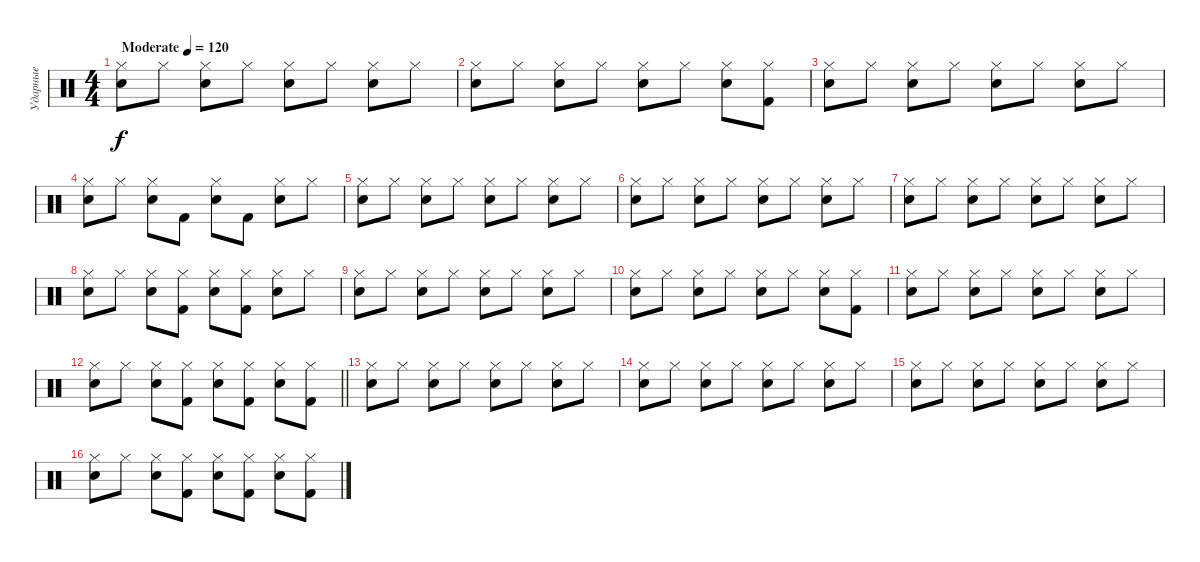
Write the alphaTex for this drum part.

\track ("Ударные" "Ударные") {instrument percussion}
\staff {score}
\articulation defaults
\ts (4 4)
\tempo (120 "Moderate")
\clef neutral
\ks c
("Hi-Hat (closed)" "Snare (hit) 2").8{dy f} "Hi-Hat (closed)".8 ("Hi-Hat (closed)" "Snare (hit) 2").8 "Hi-Hat (closed)".8 ("Hi-Hat (closed)" "Snare (hit) 2").8 "Hi-Hat (closed)".8 ("Hi-Hat (closed)" "Snare (hit) 2").8 "Hi-Hat (closed)".8 |
("Hi-Hat (closed)" "Snare (hit) 2").8 "Hi-Hat (closed)".8 ("Hi-Hat (closed)" "Snare (hit) 2").8 "Hi-Hat (closed)".8 ("Hi-Hat (closed)" "Snare (hit) 2").8 "Hi-Hat (closed)".8 ("Hi-Hat (closed)" "Snare (hit) 2").8 ("Hi-Hat (closed)" "Kick (hit) 2").8 |
("Hi-Hat (closed)" "Snare (hit) 2").8 "Hi-Hat (closed)".8 ("Hi-Hat (closed)" "Snare (hit) 2").8 "Hi-Hat (closed)".8 ("Hi-Hat (closed)" "Snare (hit) 2").8 "Hi-Hat (closed)".8 ("Hi-Hat (closed)" "Snare (hit) 2").8 "Hi-Hat (closed)".8 |
("Hi-Hat (closed)" "Snare (hit) 2").8 "Hi-Hat (closed)".8 ("Hi-Hat (closed)" "Snare (hit) 2").8 "Kick (hit) 2".8 ("Hi-Hat (closed)" "Snare (hit) 2").8 "Kick (hit) 2".8 ("Hi-Hat (closed)" "Snare (hit) 2").8 "Hi-Hat (closed)".8 |
("Hi-Hat (closed)" "Snare (hit) 2").8 "Hi-Hat (closed)".8 ("Hi-Hat (closed)" "Snare (hit) 2").8 "Hi-Hat (closed)".8 ("Hi-Hat (closed)" "Snare (hit) 2").8 "Hi-Hat (closed)".8 ("Hi-Hat (closed)" "Snare (hit) 2").8 "Hi-Hat (closed)".8 |
("Hi-Hat (closed)" "Snare (hit) 2").8 "Hi-Hat (closed)".8 ("Hi-Hat (closed)" "Snare (hit) 2").8 "Hi-Hat (closed)".8 ("Hi-Hat (closed)" "Snare (hit) 2").8 "Hi-Hat (closed)".8 ("Hi-Hat (closed)" "Snare (hit) 2").8 "Hi-Hat (closed)".8 |
("Hi-Hat (closed)" "Snare (hit) 2").8 "Hi-Hat (closed)".8 ("Hi-Hat (closed)" "Snare (hit) 2").8 "Hi-Hat (closed)".8 ("Hi-Hat (closed)" "Snare (hit) 2").8 "Hi-Hat (closed)".8 ("Hi-Hat (closed)" "Snare (hit) 2").8 "Hi-Hat (closed)".8 |
("Hi-Hat (closed)" "Snare (hit) 2").8 "Hi-Hat (closed)".8 ("Hi-Hat (closed)" "Snare (hit) 2").8 ("Hi-Hat (closed)" "Kick (hit) 2").8 ("Hi-Hat (closed)" "Snare (hit) 2").8 ("Hi-Hat (closed)" "Kick (hit) 2").8 ("Hi-Hat (closed)" "Snare (hit) 2").8 "Hi-Hat (closed)".8 |
("Hi-Hat (closed)" "Snare (hit) 2").8 "Hi-Hat (closed)".8 ("Hi-Hat (closed)" "Snare (hit) 2").8 "Hi-Hat (closed)".8 ("Hi-Hat (closed)" "Snare (hit) 2").8 "Hi-Hat (closed)".8 ("Hi-Hat (closed)" "Snare (hit) 2").8 "Hi-Hat (closed)".8 |
("Hi-Hat (closed)" "Snare (hit) 2").8 "Hi-Hat (closed)".8 ("Hi-Hat (closed)" "Snare (hit) 2").8 "Hi-Hat (closed)".8 ("Hi-Hat (closed)" "Snare (hit) 2").8 "Hi-Hat (closed)".8 ("Hi-Hat (closed)" "Snare (hit) 2").8 ("Hi-Hat (closed)" "Kick (hit) 2").8 |
("Hi-Hat (closed)" "Snare (hit) 2").8 "Hi-Hat (closed)".8 ("Hi-Hat (closed)" "Snare (hit) 2").8 "Hi-Hat (closed)".8 ("Hi-Hat (closed)" "Snare (hit) 2").8 "Hi-Hat (closed)".8 ("Hi-Hat (closed)" "Snare (hit) 2").8 "Hi-Hat (closed)".8 |
\barLineRight lightlight
("Hi-Hat (closed)" "Snare (hit) 2").8 "Hi-Hat (closed)".8 ("Hi-Hat (closed)" "Snare (hit) 2").8 ("Hi-Hat (closed)" "Kick (hit) 2").8 ("Hi-Hat (closed)" "Snare (hit) 2").8 ("Hi-Hat (closed)" "Kick (hit) 2").8 ("Hi-Hat (closed)" "Snare (hit) 2").8 ("Hi-Hat (closed)" "Kick (hit) 2").8 |
("Hi-Hat (closed)" "Snare (hit) 2").8 "Hi-Hat (closed)".8 ("Hi-Hat (closed)" "Snare (hit) 2").8 "Hi-Hat (closed)".8 ("Hi-Hat (closed)" "Snare (hit) 2").8 "Hi-Hat (closed)".8 ("Hi-Hat (closed)" "Snare (hit) 2").8 "Hi-Hat (closed)".8 |
("Hi-Hat (closed)" "Snare (hit) 2").8 "Hi-Hat (closed)".8 ("Hi-Hat (closed)" "Snare (hit) 2").8 "Hi-Hat (closed)".8 ("Hi-Hat (closed)" "Snare (hit) 2").8 "Hi-Hat (closed)".8 ("Hi-Hat (closed)" "Snare (hit) 2").8 "Hi-Hat (closed)".8 |
("Hi-Hat (closed)" "Snare (hit) 2").8 "Hi-Hat (closed)".8 ("Hi-Hat (closed)" "Snare (hit) 2").8 "Hi-Hat (closed)".8 ("Hi-Hat (closed)" "Snare (hit) 2").8 "Hi-Hat (closed)".8 ("Hi-Hat (closed)" "Snare (hit) 2").8 "Hi-Hat (closed)".8 |
("Hi-Hat (closed)" "Snare (hit) 2").8 "Hi-Hat (closed)".8 ("Hi-Hat (closed)" "Snare (hit) 2").8 ("Hi-Hat (closed)" "Kick (hit) 2").8 ("Hi-Hat (closed)" "Snare (hit) 2").8 ("Hi-Hat (closed)" "Kick (hit) 2").8 ("Hi-Hat (closed)" "Snare (hit) 2").8 ("Hi-Hat (closed)" "Kick (hit) 2").8
